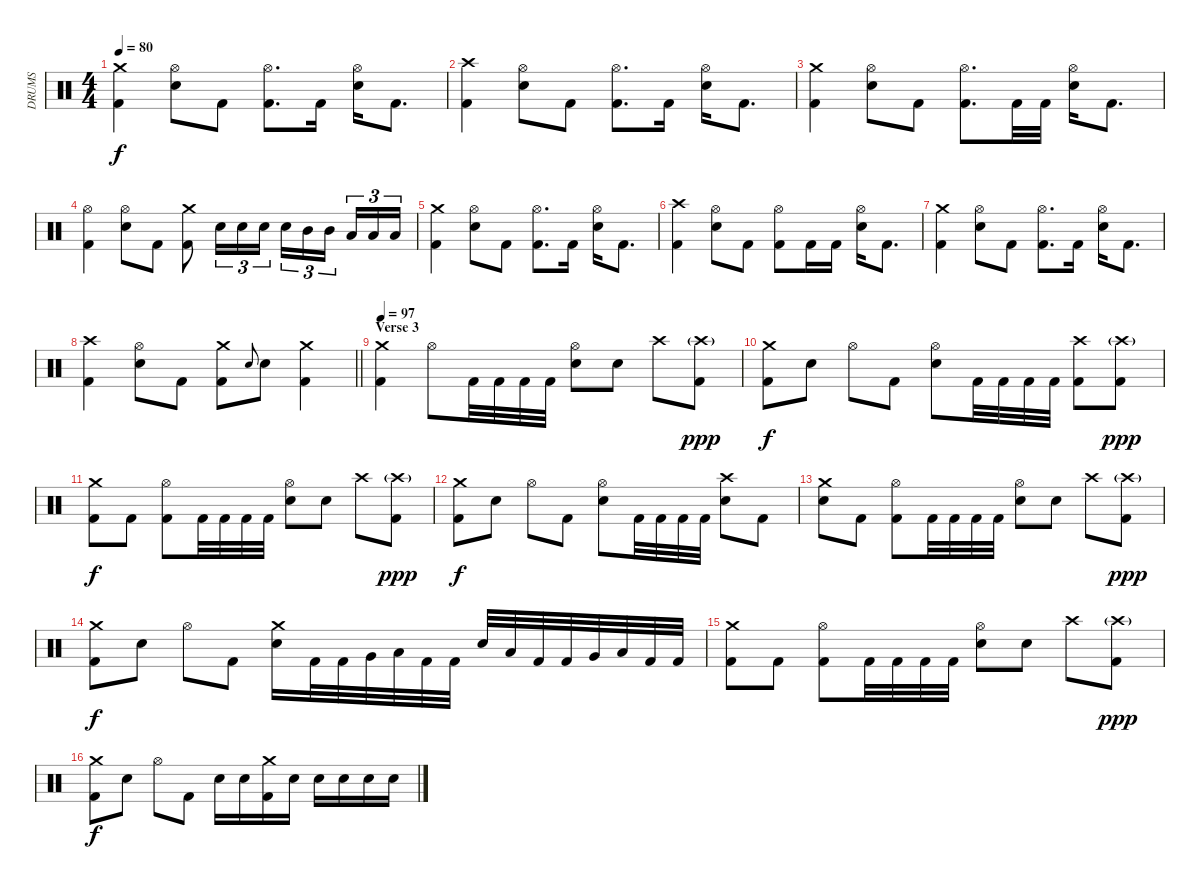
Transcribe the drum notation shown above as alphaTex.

\track ("DRUMS" "DRUMS") {instrument percussion}
\staff {score}
\articulation defaults
\ts (4 4)
\tempo 80
\clef neutral
\ks c
("Crash medium (hit)" "Kick (hit) 2").4{dy f} ("Hi-Hat (open)" "Snare (hit) 2").8 "Kick (hit) 2".8 ("Hi-Hat (open)" "Kick (hit) 2").8{d} "Kick (hit) 2".16 ("Hi-Hat (open)" "Snare (hit) 2").16 "Kick (hit) 2".8{d} |
("Crash high (hit)" "Kick (hit) 2").4 ("Hi-Hat (open)" "Snare (hit) 2").8 "Kick (hit) 2".8 ("Hi-Hat (open)" "Kick (hit) 2").8{d} "Kick (hit) 2".16 ("Hi-Hat (open)" "Snare (hit) 2").16 "Kick (hit) 2".8{d} |
("Crash medium (hit)" "Kick (hit) 2").4 ("Hi-Hat (open)" "Snare (hit) 2").8 "Kick (hit) 2".8 ("Hi-Hat (open)" "Kick (hit) 2").8{d} "Kick (hit) 2".32 "Kick (hit) 2".32 ("Hi-Hat (open)" "Snare (hit) 2").16 "Kick (hit) 2".8{d} |
("Hi-Hat (open)" "Kick (hit) 2").4 ("Hi-Hat (open)" "Snare (hit) 2").8 "Kick (hit) 2".8 ("Crash medium (hit)" "Kick (hit) 2").8 "Snare (hit) 2".16{tu (3 2)} "Snare (hit) 2".16{tu (3 2)} "Snare (hit) 2".16{tu (3 2)} "Snare (hit) 2".16{tu (3 2)} "Mid Tom (hit)".16{tu (3 2)} "Mid Tom (hit)".16{tu (3 2) beam splitsecondary} "Low Tom (hit)".16{tu (3 2)} "Low Tom (hit)".16{tu (3 2)} "Low Tom (hit)".16{tu (3 2)} |
("Crash medium (hit)" "Kick (hit) 2").4 ("Hi-Hat (open)" "Snare (hit) 2").8 "Kick (hit) 2".8 ("Hi-Hat (open)" "Kick (hit) 2").8{d} "Kick (hit) 2".16 ("Hi-Hat (open)" "Snare (hit) 2").16 "Kick (hit) 2".8{d} |
("Crash high (hit)" "Kick (hit) 2").4 ("Hi-Hat (open)" "Snare (hit) 2").8 "Kick (hit) 2".8 ("Hi-Hat (open)" "Kick (hit) 2").8 "Kick (hit) 2".16 "Kick (hit) 2".16 ("Hi-Hat (open)" "Snare (hit) 2").16 "Kick (hit) 2".8{d} |
("Crash medium (hit)" "Kick (hit) 2").4 ("Hi-Hat (open)" "Snare (hit) 2").8 "Kick (hit) 2".8 ("Hi-Hat (open)" "Kick (hit) 2").8{d} "Kick (hit) 2".16 ("Hi-Hat (open)" "Snare (hit) 2").16 "Kick (hit) 2".8{d} |
\barLineRight lightlight
("Crash high (hit)" "Kick (hit) 2").4 ("Hi-Hat (open)" "Snare (hit) 2").8 "Kick (hit) 2".8 ("Crash medium (hit)" "Kick (hit) 2").8 "Snare (hit) 2".8{gr onbeat} "Snare (hit) 2".8 ("Crash medium (hit)" "Kick (hit) 2").4 |
\section ("" "Verse 3")
\tempo 97
("Crash medium (hit)" "Kick (hit) 2").4 "Hi-Hat (open)".8 "Kick (hit) 2".32 "Kick (hit) 2".32 "Kick (hit) 2".32 "Kick (hit) 2".32 ("Hi-Hat (open)" "Snare (hit) 2").8 "Snare (hit) 2".8 "Crash high (hit)".8 ("Crash high (hit)"{g} "Kick (hit) 2").8{dy ppp} |
("Crash medium (hit)" "Kick (hit) 2").8{dy f} "Snare (hit) 2".8 "Hi-Hat (open)".8 "Kick (hit) 2".8 ("Hi-Hat (open)" "Snare (hit) 2").8 "Kick (hit) 2".32 "Kick (hit) 2".32 "Kick (hit) 2".32 "Kick (hit) 2".32 ("Crash high (hit)" "Kick (hit) 2").8 ("Crash high (hit)"{g} "Kick (hit) 2").8{dy ppp} |
("Crash medium (hit)" "Kick (hit) 2").8{dy f} "Kick (hit) 2".8 ("Hi-Hat (open)" "Kick (hit) 2").8 "Kick (hit) 2".32 "Kick (hit) 2".32 "Kick (hit) 2".32 "Kick (hit) 2".32 ("Hi-Hat (open)" "Snare (hit) 2").8 "Snare (hit) 2".8 "Crash high (hit)".8 ("Crash high (hit)"{g} "Kick (hit) 2").8{dy ppp} |
("Crash medium (hit)" "Kick (hit) 2").8{dy f} "Snare (hit) 2".8 "Hi-Hat (open)".8 "Kick (hit) 2".8 ("Hi-Hat (open)" "Snare (hit) 2").8 "Kick (hit) 2".32 "Kick (hit) 2".32 "Kick (hit) 2".32 "Kick (hit) 2".32 ("Crash high (hit)" "Snare (hit) 2").8 "Kick (hit) 2".8 |
("Crash medium (hit)" "Snare (hit) 2").8 "Kick (hit) 2".8 ("Hi-Hat (open)" "Kick (hit) 2").8 "Kick (hit) 2".32 "Kick (hit) 2".32 "Kick (hit) 2".32 "Kick (hit) 2".32 ("Hi-Hat (open)" "Snare (hit) 2").8 "Snare (hit) 2".8 "Crash high (hit)".8 ("Crash high (hit)"{g} "Kick (hit) 2").8{dy ppp} |
("Crash medium (hit)" "Kick (hit) 2").8{dy f} "Snare (hit) 2".8 "Hi-Hat (open)".8 "Kick (hit) 2".8 ("Crash medium (hit)" "Snare (hit) 2").16 "Kick (hit) 2".32 "Kick (hit) 2".32 "Very Low Tom (hit)".32 "Low Floor Tom (hit)".32 "Kick (hit) 2".32 "Kick (hit) 2".32 "Snare (hit) 2".32 "Low Floor Tom (hit)".32 "Kick (hit) 2".32 "Kick (hit) 2".32 "Very Low Tom (hit)".32 "Low Floor Tom (hit)".32 "Kick (hit) 2".32 "Kick (hit) 2".32 |
("Crash medium (hit)" "Kick (hit) 2").8 "Kick (hit) 2".8 ("Hi-Hat (open)" "Kick (hit) 2").8 "Kick (hit) 2".32 "Kick (hit) 2".32 "Kick (hit) 2".32 "Kick (hit) 2".32 ("Hi-Hat (open)" "Snare (hit) 2").8 "Snare (hit) 2".8 "Crash high (hit)".8 ("Crash high (hit)"{g} "Kick (hit) 2").8{dy ppp} |
("Crash medium (hit)" "Kick (hit) 2").8{dy f} "Snare (hit) 2".8 "Hi-Hat (open)".8 "Kick (hit) 2".8 "Snare (hit) 2".16 "Snare (hit) 2".16 ("Crash medium (hit)" "Kick (hit) 2").16 "Snare (hit) 2".16 "Snare (hit) 2".16 "Snare (hit) 2".16 "Snare (hit) 2".16 "Snare (hit) 2".16
